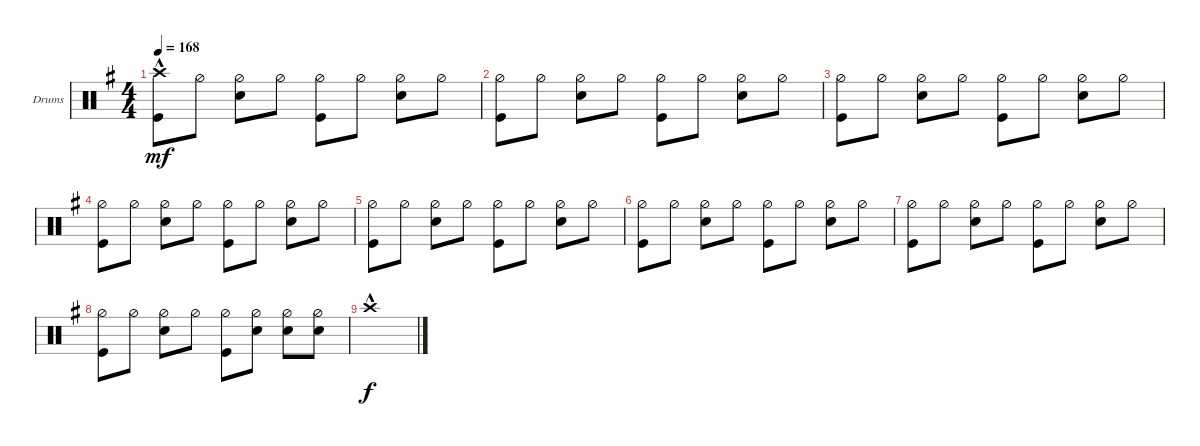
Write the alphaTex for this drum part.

\defaultSystemsLayout 4
\bracketExtendMode groupsimilarinstruments
\firstSystemTrackNameOrientation horizontal
\otherSystemsTrackNameOrientation horizontal
\track ("Drumkit" "Drums") {instrument percussion}
\staff {score}
\articulation defaults
\ts (4 4)
\tempo 168
\clef neutral
\ks eminor
("Kick (hit)" "Crash high (hit)"{hac}).8{dy mf} "Hi-Hat (half)".8 ("Hi-Hat (half)" "Snare (hit) 2").8 "Hi-Hat (half)".8 ("Hi-Hat (half)" "Kick (hit)").8 "Hi-Hat (half)".8 ("Hi-Hat (half)" "Snare (hit) 2").8 "Hi-Hat (half)".8 |
("Hi-Hat (half)" "Kick (hit)").8 "Hi-Hat (half)".8 ("Hi-Hat (half)" "Snare (hit) 2").8 "Hi-Hat (half)".8 ("Hi-Hat (half)" "Kick (hit)").8 "Hi-Hat (half)".8 ("Hi-Hat (half)" "Snare (hit) 2").8 "Hi-Hat (half)".8 |
("Hi-Hat (half)" "Kick (hit)").8 "Hi-Hat (half)".8 ("Hi-Hat (half)" "Snare (hit) 2").8 "Hi-Hat (half)".8 ("Hi-Hat (half)" "Kick (hit)").8 "Hi-Hat (half)".8 ("Hi-Hat (half)" "Snare (hit) 2").8 "Hi-Hat (half)".8 |
("Hi-Hat (half)" "Kick (hit)").8 "Hi-Hat (half)".8 ("Hi-Hat (half)" "Snare (hit) 2").8 "Hi-Hat (half)".8 ("Hi-Hat (half)" "Kick (hit)").8 "Hi-Hat (half)".8 ("Hi-Hat (half)" "Snare (hit) 2").8 "Hi-Hat (half)".8 |
("Hi-Hat (half)" "Kick (hit)").8 "Hi-Hat (half)".8 ("Hi-Hat (half)" "Snare (hit) 2").8 "Hi-Hat (half)".8 ("Hi-Hat (half)" "Kick (hit)").8 "Hi-Hat (half)".8 ("Hi-Hat (half)" "Snare (hit) 2").8 "Hi-Hat (half)".8 |
("Hi-Hat (half)" "Kick (hit)").8 "Hi-Hat (half)".8 ("Hi-Hat (half)" "Snare (hit) 2").8 "Hi-Hat (half)".8 ("Hi-Hat (half)" "Kick (hit)").8 "Hi-Hat (half)".8 ("Hi-Hat (half)" "Snare (hit) 2").8 "Hi-Hat (half)".8 |
("Hi-Hat (half)" "Kick (hit)").8 "Hi-Hat (half)".8 ("Hi-Hat (half)" "Snare (hit) 2").8 "Hi-Hat (half)".8 ("Hi-Hat (half)" "Kick (hit)").8 "Hi-Hat (half)".8 ("Hi-Hat (half)" "Snare (hit) 2").8 "Hi-Hat (half)".8 |
("Hi-Hat (half)" "Kick (hit)").8 "Hi-Hat (half)".8 ("Hi-Hat (half)" "Snare (hit) 2").8 "Hi-Hat (half)".8 ("Hi-Hat (half)" "Kick (hit)").8 ("Hi-Hat (half)" "Snare (hit) 2").8 ("Hi-Hat (half)" "Snare (hit) 2").8 ("Hi-Hat (half)" "Snare (hit) 2").8 |
"Crash high (hit)"{hac}.1{dy f}
